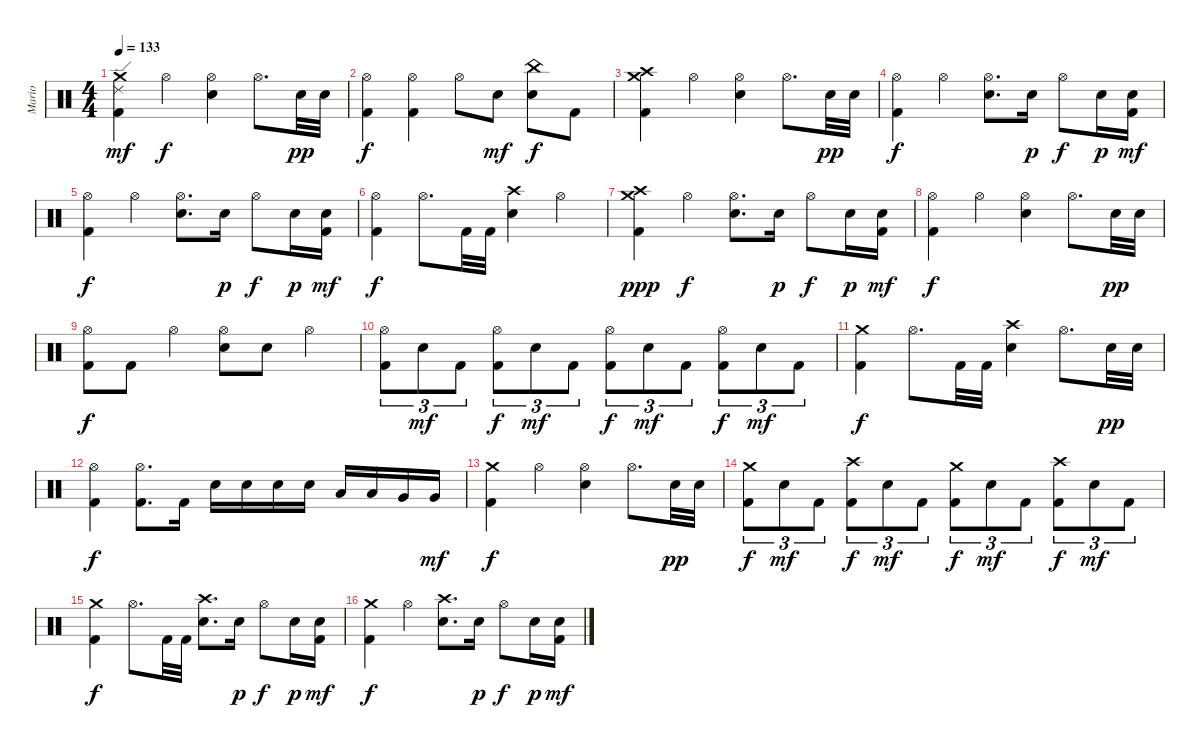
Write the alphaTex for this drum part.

\track ("Mario" "Mario") {instrument percussion}
\staff {score}
\articulation defaults
\ts (4 4)
\tempo 133
\clef neutral
\ks c
("Crash medium (hit)" "Ride (edge) 2" "Kick (hit) 2").4{dy mf} "Hi-Hat (open)".4{dy f} ("Hi-Hat (open)" "Electric Snare (hit)").4 "Hi-Hat (open)".8{d} "Electric Snare (hit)".32{dy pp} "Electric Snare (hit)".32 |
("Hi-Hat (open)" "Kick (hit) 2").4{dy f} ("Hi-Hat (open)" "Kick (hit) 2").4 "Hi-Hat (open)".8 "Electric Snare (hit)".8{dy mf} ("China (hit)" "Electric Snare (hit)").8{dy f} "Kick (hit) 2".8 |
("Crash medium (hit)" "Crash high (hit)" "Kick (hit) 2").4 "Hi-Hat (open)".4 ("Hi-Hat (open)" "Electric Snare (hit)").4 "Hi-Hat (open)".8{d} "Electric Snare (hit)".32{dy pp} "Electric Snare (hit)".32 |
("Hi-Hat (open)" "Kick (hit) 2").4{dy f} "Hi-Hat (open)".4 ("Hi-Hat (open)" "Electric Snare (hit)").8{d} "Electric Snare (hit)".16{dy p} "Hi-Hat (open)".8{dy f} "Electric Snare (hit)".16{dy p} ("Electric Snare (hit)" "Kick (hit) 2").16{dy mf} |
("Hi-Hat (open)" "Kick (hit) 2").4{dy f} "Hi-Hat (open)".4 ("Hi-Hat (open)" "Electric Snare (hit)").8{d} "Electric Snare (hit)".16{dy p} "Hi-Hat (open)".8{dy f} "Electric Snare (hit)".16{dy p} ("Electric Snare (hit)" "Kick (hit) 2").16{dy mf} |
("Hi-Hat (open)" "Kick (hit) 2").4{dy f} "Hi-Hat (open)".8{d} "Kick (hit) 2".32 "Kick (hit) 2".32 ("Crash high (hit)" "Electric Snare (hit)").4 "Hi-Hat (open)".4 |
("Crash medium (hit)" "Crash high (hit)" "Kick (hit) 2").4{dy ppp} "Hi-Hat (open)".4{dy f} ("Hi-Hat (open)" "Electric Snare (hit)").8{d} "Electric Snare (hit)".16{dy p} "Hi-Hat (open)".8{dy f} "Electric Snare (hit)".16{dy p} ("Electric Snare (hit)" "Kick (hit) 2").16{dy mf} |
("Hi-Hat (open)" "Kick (hit) 2").4{dy f} "Hi-Hat (open)".4 ("Hi-Hat (open)" "Electric Snare (hit)").4 "Hi-Hat (open)".8{d} "Electric Snare (hit)".32{dy pp} "Electric Snare (hit)".32 |
("Hi-Hat (open)" "Kick (hit) 2").8{dy f} "Kick (hit) 2".8 "Hi-Hat (open)".4 ("Hi-Hat (open)" "Electric Snare (hit)").8 "Electric Snare (hit)".8 "Hi-Hat (open)".4 |
("Hi-Hat (open)" "Kick (hit) 2").8{tu (3 2)} "Electric Snare (hit)".8{tu (3 2) dy mf} "Kick (hit) 2".8{tu (3 2)} ("Hi-Hat (open)" "Kick (hit) 2").8{tu (3 2) dy f} "Electric Snare (hit)".8{tu (3 2) dy mf} "Kick (hit) 2".8{tu (3 2)} ("Hi-Hat (open)" "Kick (hit) 2").8{tu (3 2) dy f} "Electric Snare (hit)".8{tu (3 2) dy mf} "Kick (hit) 2".8{tu (3 2)} ("Hi-Hat (open)" "Kick (hit) 2").8{tu (3 2) dy f} "Electric Snare (hit)".8{tu (3 2) dy mf} "Kick (hit) 2".8{tu (3 2)} |
("Crash medium (hit)" "Kick (hit) 2").4{dy f} "Hi-Hat (open)".8{d} "Kick (hit) 2".32 "Kick (hit) 2".32 ("Crash high (hit)" "Electric Snare (hit)").4 "Hi-Hat (open)".8{d} "Electric Snare (hit)".32{dy pp} "Electric Snare (hit)".32 |
("Hi-Hat (open)" "Kick (hit) 2").4{dy f} ("Hi-Hat (open)" "Kick (hit) 2").8{d} "Kick (hit) 2".16 "Electric Snare (hit)".16 "Electric Snare (hit)".16 "Electric Snare (hit)".16 "Electric Snare (hit)".16 "Low Tom (hit)".16 "Low Tom (hit)".16 "Very Low Tom (hit)".16 "Very Low Tom (hit)".16{dy mf} |
("Crash medium (hit)" "Kick (hit) 2").4{dy f} "Hi-Hat (open)".4 ("Hi-Hat (open)" "Electric Snare (hit)").4 "Hi-Hat (open)".8{d} "Electric Snare (hit)".32{dy pp} "Electric Snare (hit)".32 |
("Crash medium (hit)" "Kick (hit) 2").8{tu (3 2) dy f} "Electric Snare (hit)".8{tu (3 2) dy mf} "Kick (hit) 2".8{tu (3 2)} ("Crash high (hit)" "Kick (hit) 2").8{tu (3 2) dy f} "Electric Snare (hit)".8{tu (3 2) dy mf} "Kick (hit) 2".8{tu (3 2)} ("Crash medium (hit)" "Kick (hit) 2").8{tu (3 2) dy f} "Electric Snare (hit)".8{tu (3 2) dy mf} "Kick (hit) 2".8{tu (3 2)} ("Crash high (hit)" "Kick (hit) 2").8{tu (3 2) dy f} "Electric Snare (hit)".8{tu (3 2) dy mf} "Kick (hit) 2".8{tu (3 2)} |
("Crash medium (hit)" "Kick (hit) 2").4{dy f} "Hi-Hat (open)".8{d} "Kick (hit) 2".32 "Kick (hit) 2".32 ("Crash high (hit)" "Electric Snare (hit)").8{d} "Electric Snare (hit)".16{dy p} "Hi-Hat (open)".8{dy f} "Electric Snare (hit)".16{dy p} ("Electric Snare (hit)" "Kick (hit) 2").16{dy mf} |
("Crash medium (hit)" "Kick (hit) 2").4{dy f} "Hi-Hat (open)".4 ("Crash high (hit)" "Electric Snare (hit)").8{d} "Electric Snare (hit)".16{dy p} "Hi-Hat (open)".8{dy f} "Electric Snare (hit)".16{dy p} ("Electric Snare (hit)" "Kick (hit) 2").16{dy mf}
